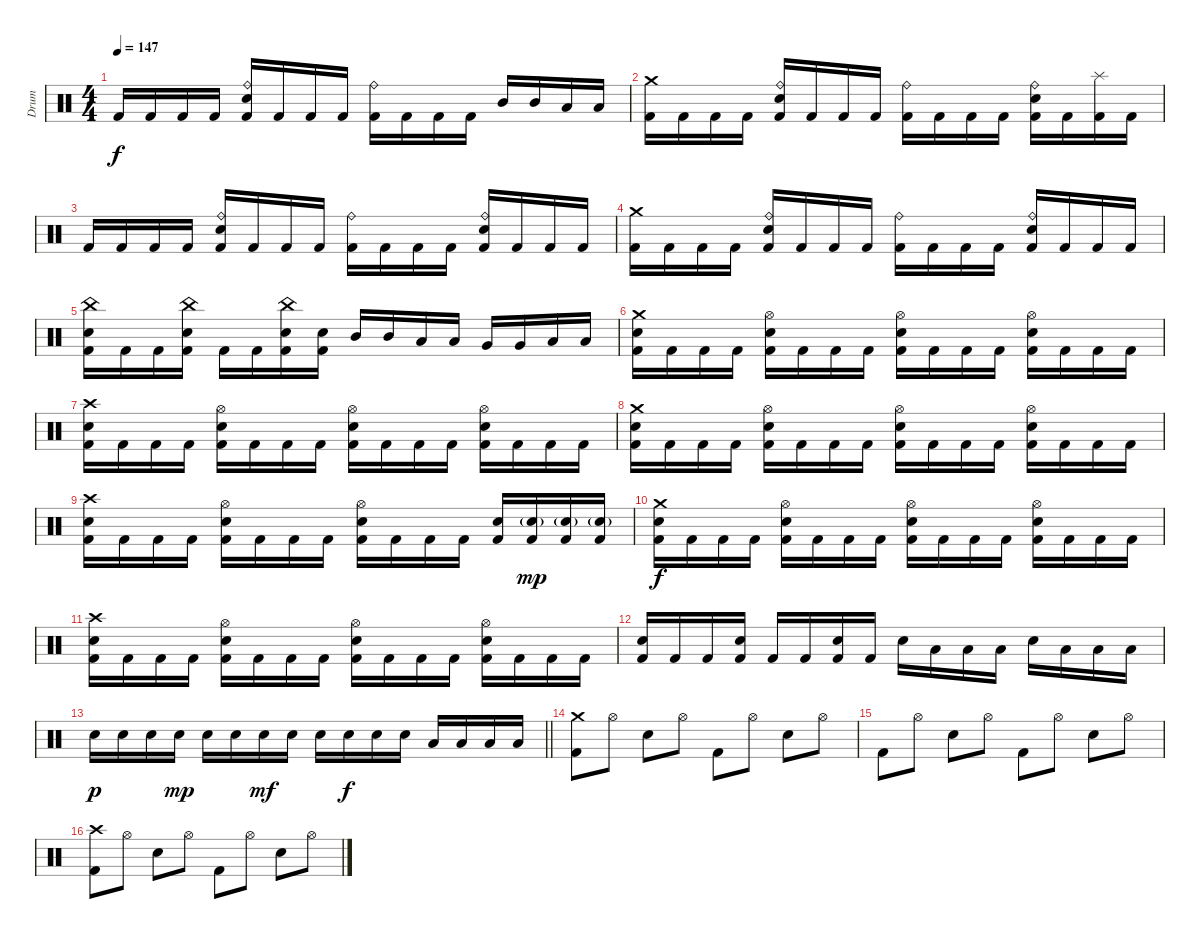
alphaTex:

\track ("Drum" "Drum") {instrument percussion}
\staff {score}
\articulation defaults
\ts (4 4)
\tempo 147
\clef neutral
\ks c "Kick (hit) 2".16{dy f} "Kick (hit) 2".16 "Kick (hit) 2".16 "Kick (hit) 2".16
("Ride (bell)" "Electric Snare (hit)" "Kick (hit) 2").16 "Kick (hit) 2".16 "Kick (hit) 2".16 "Kick (hit) 2".16 ("Ride (bell)" "Kick (hit) 2").16 "Kick (hit) 2".16 "Kick (hit) 2".16 "Kick (hit) 2".16 "Mid Tom (hit)".16 "Mid Tom (hit)".16 "Low Tom (hit)".16 "Low Tom (hit)".16 |
("Crash medium (hit)" "Kick (hit) 2").16 "Kick (hit) 2".16 "Kick (hit) 2".16 "Kick (hit) 2".16 ("Ride (bell)" "Electric Snare (hit)" "Kick (hit) 2").16 "Kick (hit) 2".16 "Kick (hit) 2".16 "Kick (hit) 2".16 ("Ride (bell)" "Kick (hit) 2").16 "Kick (hit) 2".16 "Kick (hit) 2".16 "Kick (hit) 2".16 ("Ride (bell)" "Electric Snare (hit)" "Kick (hit) 2").16 "Kick (hit) 2".16 ("Splash (hit)" "Kick (hit) 2").16 "Kick (hit) 2".16 |
"Kick (hit) 2".16 "Kick (hit) 2".16 "Kick (hit) 2".16 "Kick (hit) 2".16 ("Ride (bell)" "Electric Snare (hit)" "Kick (hit) 2").16 "Kick (hit) 2".16 "Kick (hit) 2".16 "Kick (hit) 2".16 ("Ride (bell)" "Kick (hit) 2").16 "Kick (hit) 2".16 "Kick (hit) 2".16 "Kick (hit) 2".16 ("Ride (bell)" "Electric Snare (hit)" "Kick (hit) 2").16 "Kick (hit) 2".16 "Kick (hit) 2".16 "Kick (hit) 2".16 |
("Crash medium (hit)" "Kick (hit) 2").16 "Kick (hit) 2".16 "Kick (hit) 2".16 "Kick (hit) 2".16 ("Ride (bell)" "Electric Snare (hit)" "Kick (hit) 2").16 "Kick (hit) 2".16 "Kick (hit) 2".16 "Kick (hit) 2".16 ("Ride (bell)" "Kick (hit) 2").16 "Kick (hit) 2".16 "Kick (hit) 2".16 "Kick (hit) 2".16 ("Ride (bell)" "Electric Snare (hit)" "Kick (hit) 2").16 "Kick (hit) 2".16 "Kick (hit) 2".16 "Kick (hit) 2".16 |
("China (hit)" "Electric Snare (hit)" "Kick (hit) 2").16 "Kick (hit) 2".16 "Kick (hit) 2".16 ("China (hit)" "Electric Snare (hit)" "Kick (hit) 2").16 "Kick (hit) 2".16 "Kick (hit) 2".16 ("China (hit)" "Electric Snare (hit)" "Kick (hit) 2").16 ("Electric Snare (hit)" "Kick (hit) 2").16 "Mid Tom (hit)".16 "Mid Tom (hit)".16 "Low Tom (hit)".16 "Low Tom (hit)".16 "Very Low Tom (hit)".16 "Very Low Tom (hit)".16 "Low Floor Tom (hit)".16 "Low Floor Tom (hit)".16 |
("Crash medium (hit)" "Electric Snare (hit)" "Kick (hit) 2").16 "Kick (hit) 2".16 "Kick (hit) 2".16 "Kick (hit) 2".16 ("Hi-Hat (open)" "Electric Snare (hit)" "Kick (hit) 2").16 "Kick (hit) 2".16 "Kick (hit) 2".16 "Kick (hit) 2".16 ("Hi-Hat (open)" "Electric Snare (hit)" "Kick (hit) 2").16 "Kick (hit) 2".16 "Kick (hit) 2".16 "Kick (hit) 2".16 ("Hi-Hat (open)" "Electric Snare (hit)" "Kick (hit) 2").16 "Kick (hit) 2".16 "Kick (hit) 2".16 "Kick (hit) 2".16 |
("Crash high (hit)" "Electric Snare (hit)" "Kick (hit) 2").16 "Kick (hit) 2".16 "Kick (hit) 2".16 "Kick (hit) 2".16 ("Hi-Hat (open)" "Electric Snare (hit)" "Kick (hit) 2").16 "Kick (hit) 2".16 "Kick (hit) 2".16 "Kick (hit) 2".16 ("Hi-Hat (open)" "Electric Snare (hit)" "Kick (hit) 2").16 "Kick (hit) 2".16 "Kick (hit) 2".16 "Kick (hit) 2".16 ("Hi-Hat (open)" "Electric Snare (hit)" "Kick (hit) 2").16 "Kick (hit) 2".16 "Kick (hit) 2".16 "Kick (hit) 2".16 |
("Crash medium (hit)" "Electric Snare (hit)" "Kick (hit) 2").16 "Kick (hit) 2".16 "Kick (hit) 2".16 "Kick (hit) 2".16 ("Hi-Hat (open)" "Electric Snare (hit)" "Kick (hit) 2").16 "Kick (hit) 2".16 "Kick (hit) 2".16 "Kick (hit) 2".16 ("Hi-Hat (open)" "Electric Snare (hit)" "Kick (hit) 2").16 "Kick (hit) 2".16 "Kick (hit) 2".16 "Kick (hit) 2".16 ("Hi-Hat (open)" "Electric Snare (hit)" "Kick (hit) 2").16 "Kick (hit) 2".16 "Kick (hit) 2".16 "Kick (hit) 2".16 |
("Crash high (hit)" "Electric Snare (hit)" "Kick (hit) 2").16 "Kick (hit) 2".16 "Kick (hit) 2".16 "Kick (hit) 2".16 ("Hi-Hat (open)" "Electric Snare (hit)" "Kick (hit) 2").16 "Kick (hit) 2".16 "Kick (hit) 2".16 "Kick (hit) 2".16 ("Hi-Hat (open)" "Electric Snare (hit)" "Kick (hit) 2").16 "Kick (hit) 2".16 "Kick (hit) 2".16 "Kick (hit) 2".16 ("Electric Snare (hit)" "Kick (hit) 2").16 ("Electric Snare (hit)"{g} "Kick (hit) 2").16{dy mp} ("Electric Snare (hit)"{g} "Kick (hit) 2").16 ("Electric Snare (hit)"{g} "Kick (hit) 2").16 |
("Crash medium (hit)" "Electric Snare (hit)" "Kick (hit) 2").16{dy f} "Kick (hit) 2".16 "Kick (hit) 2".16 "Kick (hit) 2".16 ("Hi-Hat (open)" "Electric Snare (hit)" "Kick (hit) 2").16 "Kick (hit) 2".16 "Kick (hit) 2".16 "Kick (hit) 2".16 ("Hi-Hat (open)" "Electric Snare (hit)" "Kick (hit) 2").16 "Kick (hit) 2".16 "Kick (hit) 2".16 "Kick (hit) 2".16 ("Hi-Hat (open)" "Electric Snare (hit)" "Kick (hit) 2").16 "Kick (hit) 2".16 "Kick (hit) 2".16 "Kick (hit) 2".16 |
("Crash high (hit)" "Electric Snare (hit)" "Kick (hit) 2").16 "Kick (hit) 2".16 "Kick (hit) 2".16 "Kick (hit) 2".16 ("Hi-Hat (open)" "Electric Snare (hit)" "Kick (hit) 2").16 "Kick (hit) 2".16 "Kick (hit) 2".16 "Kick (hit) 2".16 ("Hi-Hat (open)" "Electric Snare (hit)" "Kick (hit) 2").16 "Kick (hit) 2".16 "Kick (hit) 2".16 "Kick (hit) 2".16 ("Hi-Hat (open)" "Electric Snare (hit)" "Kick (hit) 2").16 "Kick (hit) 2".16 "Kick (hit) 2".16 "Kick (hit) 2".16 |
("Electric Snare (hit)" "Kick (hit) 2").16 "Kick (hit) 2".16 "Kick (hit) 2".16 ("Electric Snare (hit)" "Kick (hit) 2").16 "Kick (hit) 2".16 "Kick (hit) 2".16 ("Electric Snare (hit)" "Kick (hit) 2").16 "Kick (hit) 2".16 "Electric Snare (hit)".16 "Low Tom (hit)".16 "Low Tom (hit)".16 "Low Tom (hit)".16 "Electric Snare (hit)".16 "Low Tom (hit)".16 "Low Tom (hit)".16 "Low Tom (hit)".16 |
\barLineRight lightlight "Electric Snare (hit)".16{dy p} "Electric Snare (hit)".16 "Electric Snare (hit)".16 "Electric Snare (hit)".16{dy mp} "Electric Snare (hit)".16 "Electric Snare (hit)".16 "Electric Snare (hit)".16{dy mf} "Electric Snare (hit)".16 "Electric Snare (hit)".16 "Electric Snare (hit)".16{dy f} "Electric Snare (hit)".16 "Electric Snare (hit)".16 "Low Floor Tom (hit)".16 "Low Floor Tom (hit)".16 "Low Floor Tom (hit)".16 "Low Floor Tom (hit)".16
|
\section ("" "")
("Crash medium (hit)" "Kick (hit) 2").8 "Hi-Hat (open)".8 "Electric Snare (hit)".8 "Hi-Hat (open)".8 "Kick (hit) 2".8 "Hi-Hat (open)".8 "Electric Snare (hit)".8 "Hi-Hat (open)".8 |
"Kick (hit) 2".8 "Hi-Hat (open)".8 "Electric Snare (hit)".8 "Hi-Hat (open)".8 "Kick (hit) 2".8 "Hi-Hat (open)".8 "Electric Snare (hit)".8 "Hi-Hat (open)".8 |
("Crash high (hit)" "Kick (hit) 2").8 "Hi-Hat (open)".8 "Electric Snare (hit)".8 "Hi-Hat (open)".8 "Kick (hit) 2".8 "Hi-Hat (open)".8 "Electric Snare (hit)".8 "Hi-Hat (open)".8
